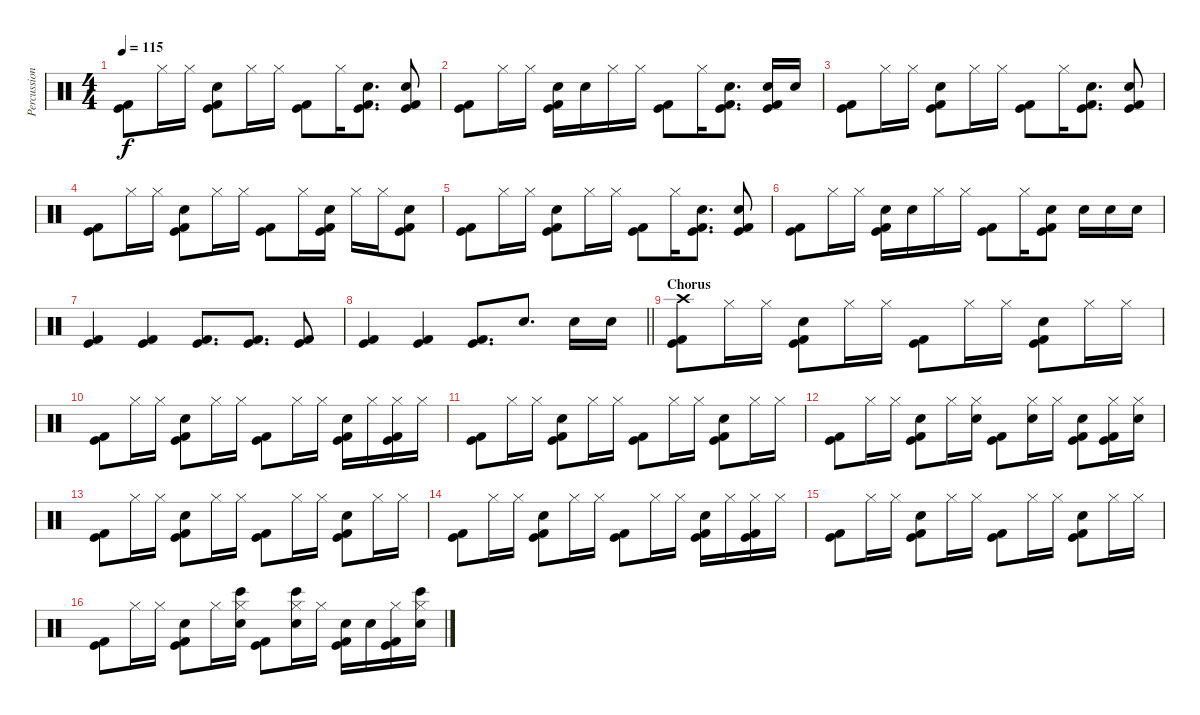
\track ("Percussion" "Percussion") {instrument percussion}
\staff {score}
\articulation defaults
\ts (4 4)
\tempo 115
\clef neutral
\ks c
("Kick (hit)" "Kick (hit) 2").8{dy f} "Hi-Hat (closed)".16 "Hi-Hat (closed)".16 ("Electric Snare (hit)" "Kick (hit)" "Kick (hit) 2").8 "Hi-Hat (closed)".16 "Hi-Hat (closed)".16 ("Kick (hit)" "Kick (hit) 2").8 "Hi-Hat (closed)".16 ("Electric Snare (hit)" "Kick (hit)" "Kick (hit) 2").8{d} ("Electric Snare (hit)" "Kick (hit)" "Kick (hit) 2").8 |
("Kick (hit)" "Kick (hit) 2").8 "Hi-Hat (closed)".16 "Hi-Hat (closed)".16 ("Electric Snare (hit)" "Kick (hit)" "Kick (hit) 2").16 "Electric Snare (hit)".16 "Hi-Hat (closed)".16 "Hi-Hat (closed)".16 ("Kick (hit)" "Kick (hit) 2").8 "Hi-Hat (closed)".16 ("Electric Snare (hit)" "Kick (hit)" "Kick (hit) 2").8{d} ("Electric Snare (hit)" "Kick (hit)" "Kick (hit) 2").16 "Electric Snare (hit)".16 |
("Kick (hit)" "Kick (hit) 2").8 "Hi-Hat (closed)".16 "Hi-Hat (closed)".16 ("Electric Snare (hit)" "Kick (hit)" "Kick (hit) 2").8 "Hi-Hat (closed)".16 "Hi-Hat (closed)".16 ("Kick (hit)" "Kick (hit) 2").8 "Hi-Hat (closed)".16 ("Electric Snare (hit)" "Kick (hit)" "Kick (hit) 2").8{d} ("Electric Snare (hit)" "Kick (hit)" "Kick (hit) 2").8 |
("Kick (hit)" "Kick (hit) 2").8 "Hi-Hat (closed)".16 "Hi-Hat (closed)".16 ("Electric Snare (hit)" "Kick (hit)" "Kick (hit) 2").8 "Hi-Hat (closed)".16 "Hi-Hat (closed)".16 ("Kick (hit)" "Kick (hit) 2").8 "Hi-Hat (closed)".16 ("Electric Snare (hit)" "Kick (hit)" "Kick (hit) 2").16 "Hi-Hat (closed)".16 "Hi-Hat (closed)".16 ("Electric Snare (hit)" "Kick (hit)" "Kick (hit) 2").8 |
("Kick (hit)" "Kick (hit) 2").8 "Hi-Hat (closed)".16 "Hi-Hat (closed)".16 ("Electric Snare (hit)" "Kick (hit)" "Kick (hit) 2").8 "Hi-Hat (closed)".16 "Hi-Hat (closed)".16 ("Kick (hit)" "Kick (hit) 2").8 "Hi-Hat (closed)".16 ("Electric Snare (hit)" "Kick (hit)" "Kick (hit) 2").8{d} ("Electric Snare (hit)" "Kick (hit)" "Kick (hit) 2").8 |
("Kick (hit)" "Kick (hit) 2").8 "Hi-Hat (closed)".16 "Hi-Hat (closed)".16 ("Electric Snare (hit)" "Kick (hit)" "Kick (hit) 2").16 "Electric Snare (hit)".16 "Hi-Hat (closed)".16 "Hi-Hat (closed)".16 ("Kick (hit)" "Kick (hit) 2").8 "Hi-Hat (closed)".16 ("Electric Snare (hit)" "Kick (hit)" "Kick (hit) 2").8 "Electric Snare (hit)".16 "Electric Snare (hit)".16 "Electric Snare (hit)".16 |
("Kick (hit)" "Kick (hit) 2").4 ("Kick (hit)" "Kick (hit) 2").4 ("Kick (hit)" "Kick (hit) 2").8{d} ("Kick (hit)" "Kick (hit) 2").8{d} ("Kick (hit)" "Kick (hit) 2").8 |
\barLineRight lightlight
("Kick (hit)" "Kick (hit) 2").4 ("Kick (hit)" "Kick (hit) 2").4 ("Kick (hit)" "Kick (hit) 2").8{d} "Electric Snare (hit)".8{d} "Electric Snare (hit)".16 "Electric Snare (hit)".16 |
\section ("" "Chorus")
("Crash high (hit)" "Kick (hit)" "Kick (hit) 2").8 "Hi-Hat (closed)".16 "Hi-Hat (closed)".16 ("Electric Snare (hit)" "Kick (hit)" "Kick (hit) 2").8 "Hi-Hat (closed)".16 "Hi-Hat (closed)".16 ("Kick (hit)" "Kick (hit) 2").8 "Hi-Hat (closed)".16 "Hi-Hat (closed)".16 ("Electric Snare (hit)" "Kick (hit)" "Kick (hit) 2").8 "Hi-Hat (closed)".16 "Hi-Hat (closed)".16 |
("Kick (hit)" "Kick (hit) 2").8 "Hi-Hat (closed)".16 "Hi-Hat (closed)".16 ("Electric Snare (hit)" "Kick (hit)" "Kick (hit) 2").8 "Hi-Hat (closed)".16 "Hi-Hat (closed)".16 ("Kick (hit)" "Kick (hit) 2").8 "Hi-Hat (closed)".16 "Hi-Hat (closed)".16 ("Electric Snare (hit)" "Kick (hit)" "Kick (hit) 2").16 "Hi-Hat (closed)".16 ("Hi-Hat (closed)" "Kick (hit)" "Kick (hit) 2").16 "Hi-Hat (closed)".16 |
("Kick (hit)" "Kick (hit) 2").8 "Hi-Hat (closed)".16 "Hi-Hat (closed)".16 ("Electric Snare (hit)" "Kick (hit)" "Kick (hit) 2").8 "Hi-Hat (closed)".16 "Hi-Hat (closed)".16 ("Kick (hit)" "Kick (hit) 2").8 "Hi-Hat (closed)".16 "Hi-Hat (closed)".16 ("Electric Snare (hit)" "Kick (hit)" "Kick (hit) 2").8 "Hi-Hat (closed)".16 "Hi-Hat (closed)".16 |
("Kick (hit)" "Kick (hit) 2").8 "Hi-Hat (closed)".16 "Hi-Hat (closed)".16 ("Electric Snare (hit)" "Kick (hit)" "Kick (hit) 2").8 "Hi-Hat (closed)".16 ("Hi-Hat (closed)" "Electric Snare (hit)").16 ("Kick (hit)" "Kick (hit) 2").8 ("Hi-Hat (closed)" "Electric Snare (hit)").16 "Hi-Hat (closed)".16 ("Electric Snare (hit)" "Kick (hit)" "Kick (hit) 2").8 ("Hi-Hat (closed)" "Kick (hit)" "Kick (hit) 2").16 ("Hi-Hat (closed)" "Electric Snare (hit)").16 |
("Kick (hit)" "Kick (hit) 2").8 "Hi-Hat (closed)".16 "Hi-Hat (closed)".16 ("Electric Snare (hit)" "Kick (hit)" "Kick (hit) 2").8 "Hi-Hat (closed)".16 "Hi-Hat (closed)".16 ("Kick (hit)" "Kick (hit) 2").8 "Hi-Hat (closed)".16 "Hi-Hat (closed)".16 ("Electric Snare (hit)" "Kick (hit)" "Kick (hit) 2").8 "Hi-Hat (closed)".16 "Hi-Hat (closed)".16 |
("Kick (hit)" "Kick (hit) 2").8 "Hi-Hat (closed)".16 "Hi-Hat (closed)".16 ("Electric Snare (hit)" "Kick (hit)" "Kick (hit) 2").8 "Hi-Hat (closed)".16 "Hi-Hat (closed)".16 ("Kick (hit)" "Kick (hit) 2").8 "Hi-Hat (closed)".16 "Hi-Hat (closed)".16 ("Electric Snare (hit)" "Kick (hit)" "Kick (hit) 2").16 "Hi-Hat (closed)".16 ("Hi-Hat (closed)" "Kick (hit)" "Kick (hit) 2").16 "Hi-Hat (closed)".16 |
("Kick (hit)" "Kick (hit) 2").8 "Hi-Hat (closed)".16 "Hi-Hat (closed)".16 ("Electric Snare (hit)" "Kick (hit)" "Kick (hit) 2").8 "Hi-Hat (closed)".16 "Hi-Hat (closed)".16 ("Kick (hit)" "Kick (hit) 2").8 "Hi-Hat (closed)".16 "Hi-Hat (closed)".16 ("Electric Snare (hit)" "Kick (hit)" "Kick (hit) 2").8 "Hi-Hat (closed)".16 "Hi-Hat (closed)".16 |
("Kick (hit)" "Kick (hit) 2").8 "Hi-Hat (closed)".16 "Hi-Hat (closed)".16 ("Electric Snare (hit)" "Kick (hit)" "Kick (hit) 2").8 "Hi-Hat (closed)".16 ("Hi-Hat (closed)" "Bongo High (hit)" "Electric Snare (hit)").16 ("Kick (hit)" "Kick (hit) 2").8 ("Hi-Hat (closed)" "Bongo High (hit)" "Electric Snare (hit)").16 "Hi-Hat (closed)".16 ("Electric Snare (hit)" "Kick (hit)" "Kick (hit) 2").16 "Electric Snare (hit)".16 ("Hi-Hat (closed)" "Kick (hit)" "Kick (hit) 2").16 ("Hi-Hat (closed)" "Bongo High (hit)" "Electric Snare (hit)").16
